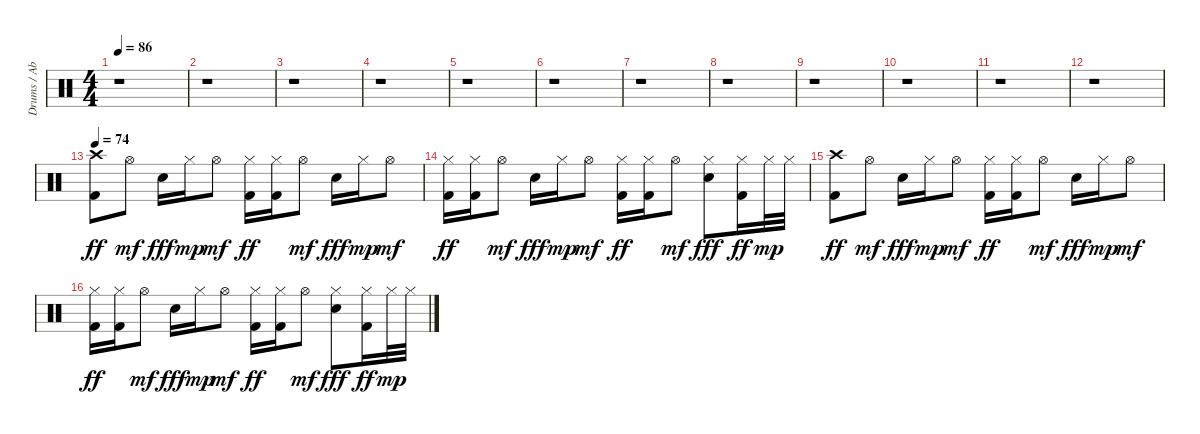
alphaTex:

\track ("Drums / Abe Cunningham" "Drums / Ab") {instrument percussion}
\staff {score}
\articulation defaults
\ts (4 4)
\tempo 86
\tempo 72
\tempo 86
\clef neutral
\ks c
r.1{dy ff} |
r.1 |
r.1 |
r.1 |
r.1 |
r.1 |
r.1 |
r.1 |
r.1 |
r.1 |
r.1 |
r.1 |
\tempo 74
("Crash high (hit)" "Kick (hit) 2").8 "Hi-Hat (open)".8{dy mf} "Electric Snare (hit)".16{dy fff} "Hi-Hat (closed)".16{dy mp} "Hi-Hat (open)".8{dy mf} ("Hi-Hat (closed)" "Kick (hit) 2").16{dy ff} ("Hi-Hat (closed)" "Kick (hit) 2").16 "Hi-Hat (open)".8{dy mf} "Electric Snare (hit)".16{dy fff} "Hi-Hat (closed)".16{dy mp} "Hi-Hat (open)".8{dy mf} |
("Hi-Hat (closed)" "Kick (hit) 2").16{dy ff} ("Hi-Hat (closed)" "Kick (hit) 2").16 "Hi-Hat (open)".8{dy mf} "Electric Snare (hit)".16{dy fff} "Hi-Hat (closed)".16{dy mp} "Hi-Hat (open)".8{dy mf} ("Hi-Hat (closed)" "Kick (hit) 2").16{dy ff} ("Hi-Hat (closed)" "Kick (hit) 2").16 "Hi-Hat (open)".8{dy mf} ("Hi-Hat (closed)" "Electric Snare (hit)").8{dy fff} ("Hi-Hat (closed)" "Kick (hit) 2").16{dy ff} "Hi-Hat (closed)".32{dy mp} "Hi-Hat (closed)".32 |
("Crash high (hit)" "Kick (hit) 2").8{dy ff} "Hi-Hat (open)".8{dy mf} "Electric Snare (hit)".16{dy fff} "Hi-Hat (closed)".16{dy mp} "Hi-Hat (open)".8{dy mf} ("Hi-Hat (closed)" "Kick (hit) 2").16{dy ff} ("Hi-Hat (closed)" "Kick (hit) 2").16 "Hi-Hat (open)".8{dy mf} "Electric Snare (hit)".16{dy fff} "Hi-Hat (closed)".16{dy mp} "Hi-Hat (open)".8{dy mf} |
("Hi-Hat (closed)" "Kick (hit) 2").16{dy ff} ("Hi-Hat (closed)" "Kick (hit) 2").16 "Hi-Hat (open)".8{dy mf} "Electric Snare (hit)".16{dy fff} "Hi-Hat (closed)".16{dy mp} "Hi-Hat (open)".8{dy mf} ("Hi-Hat (closed)" "Kick (hit) 2").16{dy ff} ("Hi-Hat (closed)" "Kick (hit) 2").16 "Hi-Hat (open)".8{dy mf} ("Hi-Hat (closed)" "Electric Snare (hit)").8{dy fff} ("Hi-Hat (closed)" "Kick (hit) 2").16{dy ff} "Hi-Hat (closed)".32{dy mp} "Hi-Hat (closed)".32
